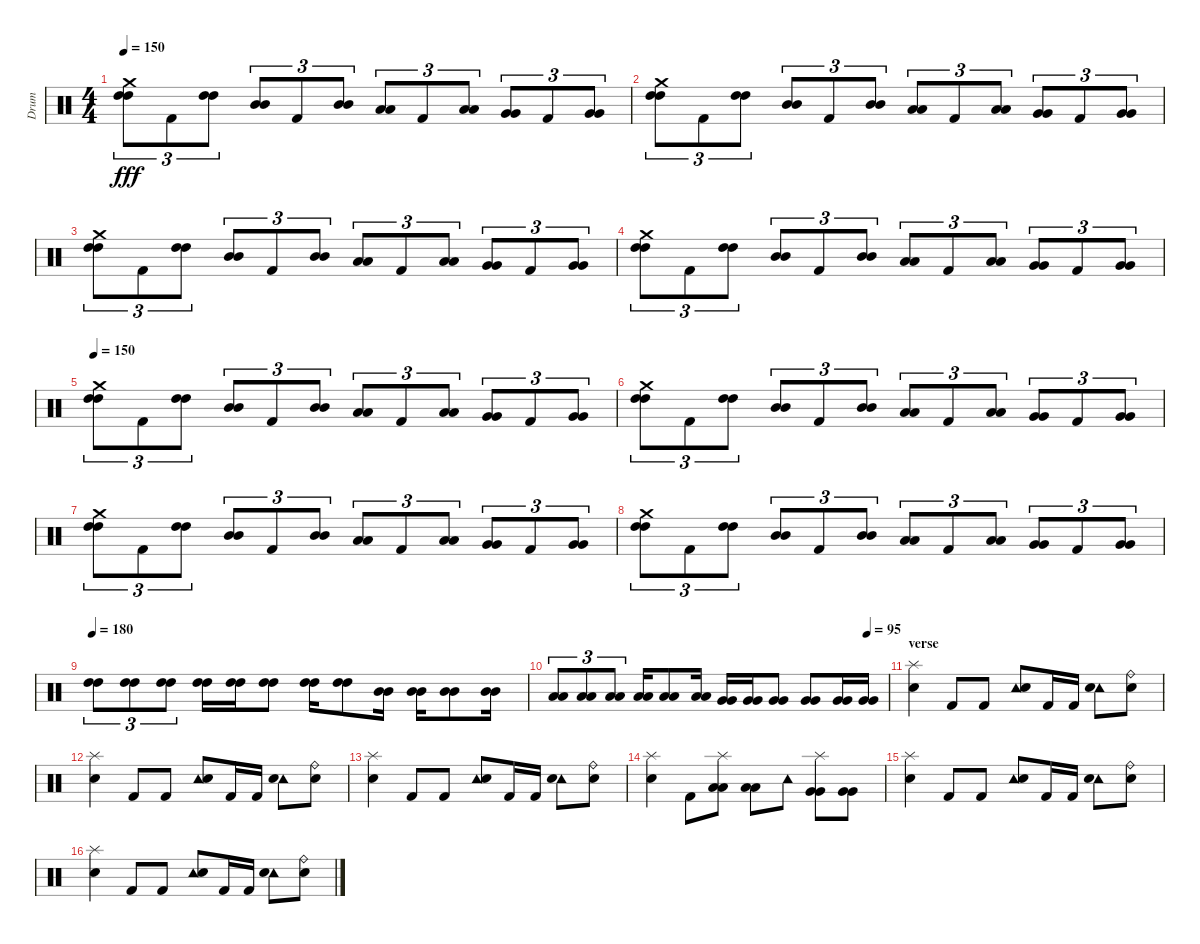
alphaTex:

\track ("Drum" "Drum") {instrument percussion}
\staff {score}
\articulation defaults
\ts (4 4)
\tempo 150
\clef neutral
\ks c
("Crash medium (hit)" "High Tom (hit)" "High Tom (hit)").8{tu (3 2) dy fff} "Kick (hit) 2".8{tu (3 2)} ("High Tom (hit)" "High Tom (hit)").8{tu (3 2)} ("Mid Tom (hit)" "Mid Tom (hit)").8{tu (3 2)} "Kick (hit) 2".8{tu (3 2)} ("Mid Tom (hit)" "Mid Tom (hit)").8{tu (3 2)} ("Low Tom (hit)" "Low Tom (hit)").8{tu (3 2)} "Kick (hit) 2".8{tu (3 2)} ("Low Tom (hit)" "Low Tom (hit)").8{tu (3 2)} ("Very Low Tom (hit)" "Very Low Tom (hit)").8{tu (3 2)} "Kick (hit) 2".8{tu (3 2)} ("Very Low Tom (hit)" "Very Low Tom (hit)").8{tu (3 2)} |
("Crash medium (hit)" "High Tom (hit)" "High Tom (hit)").8{tu (3 2)} "Kick (hit) 2".8{tu (3 2)} ("High Tom (hit)" "High Tom (hit)").8{tu (3 2)} ("Mid Tom (hit)" "Mid Tom (hit)").8{tu (3 2)} "Kick (hit) 2".8{tu (3 2)} ("Mid Tom (hit)" "Mid Tom (hit)").8{tu (3 2)} ("Low Tom (hit)" "Low Tom (hit)").8{tu (3 2)} "Kick (hit) 2".8{tu (3 2)} ("Low Tom (hit)" "Low Tom (hit)").8{tu (3 2)} ("Very Low Tom (hit)" "Very Low Tom (hit)").8{tu (3 2)} "Kick (hit) 2".8{tu (3 2)} ("Very Low Tom (hit)" "Very Low Tom (hit)").8{tu (3 2)} |
("Crash medium (hit)" "High Tom (hit)" "High Tom (hit)").8{tu (3 2)} "Kick (hit) 2".8{tu (3 2)} ("High Tom (hit)" "High Tom (hit)").8{tu (3 2)} ("Mid Tom (hit)" "Mid Tom (hit)").8{tu (3 2)} "Kick (hit) 2".8{tu (3 2)} ("Mid Tom (hit)" "Mid Tom (hit)").8{tu (3 2)} ("Low Tom (hit)" "Low Tom (hit)").8{tu (3 2)} "Kick (hit) 2".8{tu (3 2)} ("Low Tom (hit)" "Low Tom (hit)").8{tu (3 2)} ("Very Low Tom (hit)" "Very Low Tom (hit)").8{tu (3 2)} "Kick (hit) 2".8{tu (3 2)} ("Very Low Tom (hit)" "Very Low Tom (hit)").8{tu (3 2)} |
("Crash medium (hit)" "High Tom (hit)" "High Tom (hit)").8{tu (3 2)} "Kick (hit) 2".8{tu (3 2)} ("High Tom (hit)" "High Tom (hit)").8{tu (3 2)} ("Mid Tom (hit)" "Mid Tom (hit)").8{tu (3 2)} "Kick (hit) 2".8{tu (3 2)} ("Mid Tom (hit)" "Mid Tom (hit)").8{tu (3 2)} ("Low Tom (hit)" "Low Tom (hit)").8{tu (3 2)} "Kick (hit) 2".8{tu (3 2)} ("Low Tom (hit)" "Low Tom (hit)").8{tu (3 2)} ("Very Low Tom (hit)" "Very Low Tom (hit)").8{tu (3 2)} "Kick (hit) 2".8{tu (3 2)} ("Very Low Tom (hit)" "Very Low Tom (hit)").8{tu (3 2)} |
\tempo 150
("Crash medium (hit)" "High Tom (hit)" "High Tom (hit)").8{tu (3 2)} "Kick (hit) 2".8{tu (3 2)} ("High Tom (hit)" "High Tom (hit)").8{tu (3 2)} ("Mid Tom (hit)" "Mid Tom (hit)").8{tu (3 2)} "Kick (hit) 2".8{tu (3 2)} ("Mid Tom (hit)" "Mid Tom (hit)").8{tu (3 2)} ("Low Tom (hit)" "Low Tom (hit)").8{tu (3 2)} "Kick (hit) 2".8{tu (3 2)} ("Low Tom (hit)" "Low Tom (hit)").8{tu (3 2)} ("Very Low Tom (hit)" "Very Low Tom (hit)").8{tu (3 2)} "Kick (hit) 2".8{tu (3 2)} ("Very Low Tom (hit)" "Very Low Tom (hit)").8{tu (3 2)} |
("Crash medium (hit)" "High Tom (hit)" "High Tom (hit)").8{tu (3 2)} "Kick (hit) 2".8{tu (3 2)} ("High Tom (hit)" "High Tom (hit)").8{tu (3 2)} ("Mid Tom (hit)" "Mid Tom (hit)").8{tu (3 2)} "Kick (hit) 2".8{tu (3 2)} ("Mid Tom (hit)" "Mid Tom (hit)").8{tu (3 2)} ("Low Tom (hit)" "Low Tom (hit)").8{tu (3 2)} "Kick (hit) 2".8{tu (3 2)} ("Low Tom (hit)" "Low Tom (hit)").8{tu (3 2)} ("Very Low Tom (hit)" "Very Low Tom (hit)").8{tu (3 2)} "Kick (hit) 2".8{tu (3 2)} ("Very Low Tom (hit)" "Very Low Tom (hit)").8{tu (3 2)} |
("Crash medium (hit)" "High Tom (hit)" "High Tom (hit)").8{tu (3 2)} "Kick (hit) 2".8{tu (3 2)} ("High Tom (hit)" "High Tom (hit)").8{tu (3 2)} ("Mid Tom (hit)" "Mid Tom (hit)").8{tu (3 2)} "Kick (hit) 2".8{tu (3 2)} ("Mid Tom (hit)" "Mid Tom (hit)").8{tu (3 2)} ("Low Tom (hit)" "Low Tom (hit)").8{tu (3 2)} "Kick (hit) 2".8{tu (3 2)} ("Low Tom (hit)" "Low Tom (hit)").8{tu (3 2)} ("Very Low Tom (hit)" "Very Low Tom (hit)").8{tu (3 2)} "Kick (hit) 2".8{tu (3 2)} ("Very Low Tom (hit)" "Very Low Tom (hit)").8{tu (3 2)} |
("Crash medium (hit)" "High Tom (hit)" "High Tom (hit)").8{tu (3 2)} "Kick (hit) 2".8{tu (3 2)} ("High Tom (hit)" "High Tom (hit)").8{tu (3 2)} ("Mid Tom (hit)" "Mid Tom (hit)").8{tu (3 2)} "Kick (hit) 2".8{tu (3 2)} ("Mid Tom (hit)" "Mid Tom (hit)").8{tu (3 2)} ("Low Tom (hit)" "Low Tom (hit)").8{tu (3 2)} "Kick (hit) 2".8{tu (3 2)} ("Low Tom (hit)" "Low Tom (hit)").8{tu (3 2)} ("Very Low Tom (hit)" "Very Low Tom (hit)").8{tu (3 2)} "Kick (hit) 2".8{tu (3 2)} ("Very Low Tom (hit)" "Very Low Tom (hit)").8{tu (3 2)} |
\tempo 180
("High Tom (hit)" "High Tom (hit)").8{tu (3 2)} ("High Tom (hit)" "High Tom (hit)").8{tu (3 2)} ("High Tom (hit)" "High Tom (hit)").8{tu (3 2)} ("High Tom (hit)" "High Tom (hit)").16 ("High Tom (hit)" "High Tom (hit)").16 ("High Tom (hit)" "High Tom (hit)").8 ("High Tom (hit)" "High Tom (hit)").16 ("High Tom (hit)" "High Tom (hit)").8 ("Mid Tom (hit)" "Mid Tom (hit)").16 ("Mid Tom (hit)" "Mid Tom (hit)").16 ("Mid Tom (hit)" "Mid Tom (hit)").8 ("Mid Tom (hit)" "Mid Tom (hit)").16 |
\tempo (95 0.9375)
("Low Tom (hit)" "Low Tom (hit)").8{tu (3 2)} ("Low Tom (hit)" "Low Tom (hit)").8{tu (3 2)} ("Low Tom (hit)" "Low Tom (hit)").8{tu (3 2)} ("Low Tom (hit)" "Low Tom (hit)").16 ("Low Tom (hit)" "Low Tom (hit)").8 ("Low Tom (hit)" "Low Tom (hit)").16 ("Very Low Tom (hit)" "Very Low Tom (hit)").16 ("Very Low Tom (hit)" "Very Low Tom (hit)").16 ("Very Low Tom (hit)" "Very Low Tom (hit)").8 ("Very Low Tom (hit)" "Very Low Tom (hit)").8 ("Very Low Tom (hit)" "Very Low Tom (hit)").16 ("Very Low Tom (hit)" "Very Low Tom (hit)").16 |
\section ("" "verse")
("Splash (hit)" "Snare (hit) 2").4 "Kick (hit) 2".8 "Kick (hit) 2".8 ("Tambourine (hit)" "Snare (hit) 2").8 "Kick (hit) 2".16 "Kick (hit) 2".16 ("Tambourine (hit)" "Snare (hit) 2").8 ("Snare (hit) 2" "Ride (bell)").8 |
("Splash (hit)" "Snare (hit) 2").4 "Kick (hit) 2".8 "Kick (hit) 2".8 ("Tambourine (hit)" "Snare (hit) 2").8 "Kick (hit) 2".16 "Kick (hit) 2".16 ("Tambourine (hit)" "Snare (hit) 2").8 ("Snare (hit) 2" "Ride (bell)").8 |
("Splash (hit)" "Snare (hit) 2").4 "Kick (hit) 2".8 "Kick (hit) 2".8 ("Tambourine (hit)" "Snare (hit) 2").8 "Kick (hit) 2".16 "Kick (hit) 2".16 ("Tambourine (hit)" "Snare (hit) 2").8 ("Snare (hit) 2" "Ride (bell)").8 |
("Splash (hit)" "Snare (hit) 2").4 "Kick (hit) 2".8 ("Low Tom (hit)" "Low Tom (hit)" "Splash (hit)").8 ("Low Tom (hit)" "Low Tom (hit)").8 "Tambourine (hit)".8 ("Very Low Tom (hit)" "Very Low Tom (hit)" "Splash (hit)").8 ("Very Low Tom (hit)" "Very Low Tom (hit)").8 |
("Splash (hit)" "Snare (hit) 2").4 "Kick (hit) 2".8 "Kick (hit) 2".8 ("Tambourine (hit)" "Snare (hit) 2").8 "Kick (hit) 2".16 "Kick (hit) 2".16 ("Tambourine (hit)" "Snare (hit) 2").8 ("Snare (hit) 2" "Ride (bell)").8 |
("Splash (hit)" "Snare (hit) 2").4 "Kick (hit) 2".8 "Kick (hit) 2".8 ("Tambourine (hit)" "Snare (hit) 2").8 "Kick (hit) 2".16 "Kick (hit) 2".16 ("Tambourine (hit)" "Snare (hit) 2").8 ("Snare (hit) 2" "Ride (bell)").8
